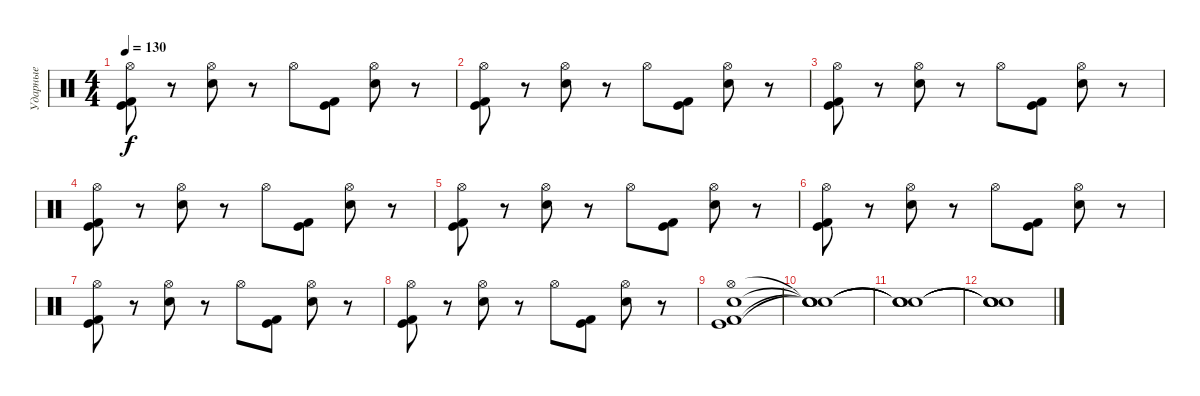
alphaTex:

\track ("Ударные" "Ударные") {instrument percussion}
\staff {score}
\articulation defaults
\ts (4 4)
\tempo 130
\clef neutral
\ks c
("Hi-Hat (open)" "Kick (hit)" "Kick (hit) 2").8{dy f} r.8 ("Hi-Hat (open)" "Electric Snare (hit)").8 r.8 "Hi-Hat (open)".8 ("Kick (hit)" "Kick (hit) 2").8 ("Hi-Hat (open)" "Electric Snare (hit)").8 r.8 |
("Hi-Hat (open)" "Kick (hit)" "Kick (hit) 2").8 r.8 ("Hi-Hat (open)" "Electric Snare (hit)").8 r.8 "Hi-Hat (open)".8 ("Kick (hit)" "Kick (hit) 2").8 ("Hi-Hat (open)" "Electric Snare (hit)").8 r.8 |
("Hi-Hat (open)" "Kick (hit)" "Kick (hit) 2").8 r.8 ("Hi-Hat (open)" "Electric Snare (hit)").8 r.8 "Hi-Hat (open)".8 ("Kick (hit)" "Kick (hit) 2").8 ("Hi-Hat (open)" "Electric Snare (hit)").8 r.8 |
("Hi-Hat (open)" "Kick (hit)" "Kick (hit) 2").8 r.8 ("Hi-Hat (open)" "Electric Snare (hit)").8 r.8 "Hi-Hat (open)".8 ("Kick (hit)" "Kick (hit) 2").8 ("Hi-Hat (open)" "Electric Snare (hit)").8 r.8 |
("Hi-Hat (open)" "Kick (hit)" "Kick (hit) 2").8 r.8 ("Hi-Hat (open)" "Electric Snare (hit)").8 r.8 "Hi-Hat (open)".8 ("Kick (hit)" "Kick (hit) 2").8 ("Hi-Hat (open)" "Electric Snare (hit)").8 r.8 |
("Hi-Hat (open)" "Kick (hit)" "Kick (hit) 2").8 r.8 ("Hi-Hat (open)" "Electric Snare (hit)").8 r.8 "Hi-Hat (open)".8 ("Kick (hit)" "Kick (hit) 2").8 ("Hi-Hat (open)" "Electric Snare (hit)").8 r.8 |
("Hi-Hat (open)" "Kick (hit)" "Kick (hit) 2").8 r.8 ("Hi-Hat (open)" "Electric Snare (hit)").8 r.8 "Hi-Hat (open)".8 ("Kick (hit)" "Kick (hit) 2").8 ("Hi-Hat (open)" "Electric Snare (hit)").8 r.8 |
("Hi-Hat (open)" "Kick (hit)" "Kick (hit) 2").8 r.8 ("Hi-Hat (open)" "Electric Snare (hit)").8 r.8 "Hi-Hat (open)".8 ("Kick (hit)" "Kick (hit) 2").8 ("Hi-Hat (open)" "Electric Snare (hit)").8 r.8 |
("Hi-Hat (open)" "Kick (hit)" "Kick (hit) 2" "Electric Snare (hit)").1 |
("Snare (hit)"{t} "Snare (hit)"{t} "Snare (hit)"{t} "Snare (hit)"{t}).1 |
("Snare (hit)"{t} "Snare (hit)"{t} "Snare (hit)"{t} "Snare (hit)"{t}).1 |
("Snare (hit)"{t} "Snare (hit)"{t} "Snare (hit)"{t} "Snare (hit)"{t}).1
